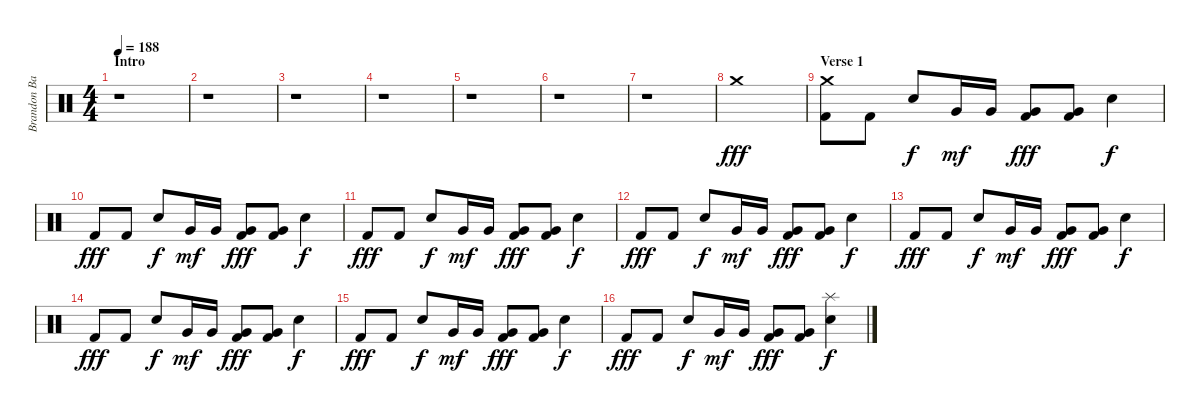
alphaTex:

\track ("Brandon Barnes (Drums)" "Brandon Ba") {instrument percussion}
\staff {score}
\articulation defaults
\ts (4 4)
\section ("" "Intro")
\tempo 188
\clef neutral
\ks c
r.1{dy fff} |
r.1 |
r.1 |
r.1 |
r.1 |
r.1 |
r.1{volume 0} |
"Crash medium (hit)".1{volume 15} |
\section ("" "Verse 1")
("Crash medium (hit)" "Kick (hit) 2").8 "Kick (hit) 2".8 "Electric Snare (hit)".8{dy f} "Very Low Tom (hit)".16{dy mf} "Very Low Tom (hit)".16 ("Very Low Tom (hit)" "Kick (hit) 2").8{dy fff} ("Very Low Tom (hit)" "Kick (hit) 2").8 "Electric Snare (hit)".4{dy f} |
"Kick (hit) 2".8{dy fff} "Kick (hit) 2".8 "Electric Snare (hit)".8{dy f} "Very Low Tom (hit)".16{dy mf} "Very Low Tom (hit)".16 ("Very Low Tom (hit)" "Kick (hit) 2").8{dy fff} ("Very Low Tom (hit)" "Kick (hit) 2").8 "Electric Snare (hit)".4{dy f} |
"Kick (hit) 2".8{dy fff} "Kick (hit) 2".8 "Electric Snare (hit)".8{dy f} "Very Low Tom (hit)".16{dy mf} "Very Low Tom (hit)".16 ("Very Low Tom (hit)" "Kick (hit) 2").8{dy fff} ("Very Low Tom (hit)" "Kick (hit) 2").8 "Electric Snare (hit)".4{dy f} |
"Kick (hit) 2".8{dy fff} "Kick (hit) 2".8 "Electric Snare (hit)".8{dy f} "Very Low Tom (hit)".16{dy mf} "Very Low Tom (hit)".16 ("Very Low Tom (hit)" "Kick (hit) 2").8{dy fff} ("Very Low Tom (hit)" "Kick (hit) 2").8 "Electric Snare (hit)".4{dy f} |
"Kick (hit) 2".8{dy fff} "Kick (hit) 2".8 "Electric Snare (hit)".8{dy f} "Very Low Tom (hit)".16{dy mf} "Very Low Tom (hit)".16 ("Very Low Tom (hit)" "Kick (hit) 2").8{dy fff} ("Very Low Tom (hit)" "Kick (hit) 2").8 "Electric Snare (hit)".4{dy f} |
"Kick (hit) 2".8{dy fff} "Kick (hit) 2".8 "Electric Snare (hit)".8{dy f} "Very Low Tom (hit)".16{dy mf} "Very Low Tom (hit)".16 ("Very Low Tom (hit)" "Kick (hit) 2").8{dy fff} ("Very Low Tom (hit)" "Kick (hit) 2").8 "Electric Snare (hit)".4{dy f} |
"Kick (hit) 2".8{dy fff} "Kick (hit) 2".8 "Electric Snare (hit)".8{dy f} "Very Low Tom (hit)".16{dy mf} "Very Low Tom (hit)".16 ("Very Low Tom (hit)" "Kick (hit) 2").8{dy fff} ("Very Low Tom (hit)" "Kick (hit) 2").8 "Electric Snare (hit)".4{dy f} |
"Kick (hit) 2".8{dy fff} "Kick (hit) 2".8 "Electric Snare (hit)".8{dy f} "Very Low Tom (hit)".16{dy mf} "Very Low Tom (hit)".16 ("Very Low Tom (hit)" "Kick (hit) 2").8{dy fff} ("Very Low Tom (hit)" "Kick (hit) 2").8 ("Splash (hit)" "Electric Snare (hit)").4{dy f}
